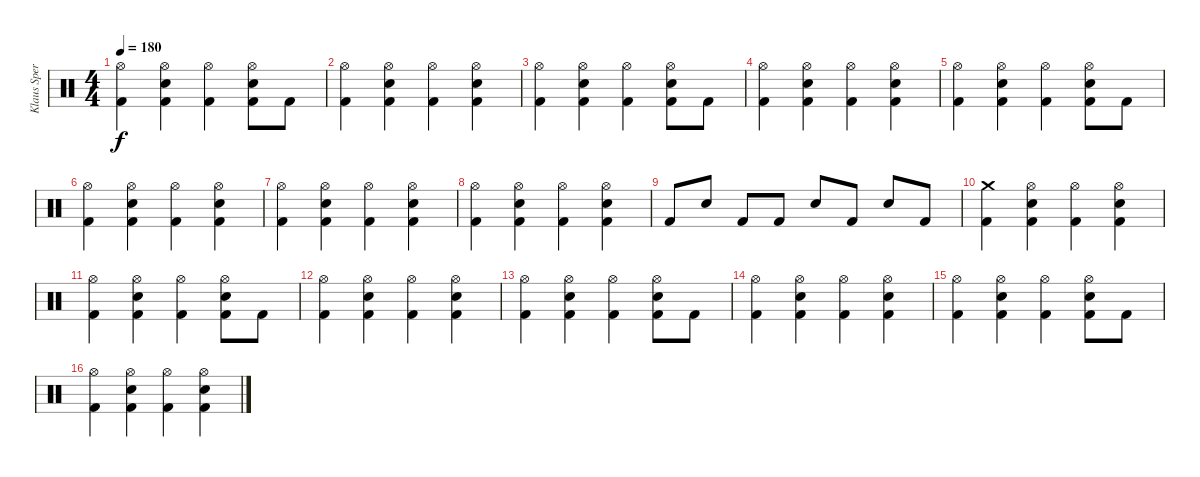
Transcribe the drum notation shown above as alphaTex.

\track ("Klaus Sperling Drums" "Klaus Sper") {instrument percussion}
\staff {score}
\articulation defaults
\ts (4 4)
\tempo 180
\clef neutral
\ks c
("Hi-Hat (open)" "Kick (hit) 2").4{dy f} ("Hi-Hat (open)" "Electric Snare (hit)" "Kick (hit) 2").4 ("Hi-Hat (open)" "Kick (hit) 2").4 ("Hi-Hat (open)" "Electric Snare (hit)" "Kick (hit) 2").8 "Kick (hit) 2".8 |
("Hi-Hat (open)" "Kick (hit) 2").4 ("Hi-Hat (open)" "Electric Snare (hit)" "Kick (hit) 2").4 ("Hi-Hat (open)" "Kick (hit) 2").4 ("Hi-Hat (open)" "Electric Snare (hit)" "Kick (hit) 2").4 |
("Hi-Hat (open)" "Kick (hit) 2").4 ("Hi-Hat (open)" "Electric Snare (hit)" "Kick (hit) 2").4 ("Hi-Hat (open)" "Kick (hit) 2").4 ("Hi-Hat (open)" "Electric Snare (hit)" "Kick (hit) 2").8 "Kick (hit) 2".8 |
("Hi-Hat (open)" "Kick (hit) 2").4 ("Hi-Hat (open)" "Electric Snare (hit)" "Kick (hit) 2").4 ("Hi-Hat (open)" "Kick (hit) 2").4 ("Hi-Hat (open)" "Electric Snare (hit)" "Kick (hit) 2").4 |
("Hi-Hat (open)" "Kick (hit) 2").4 ("Hi-Hat (open)" "Electric Snare (hit)" "Kick (hit) 2").4 ("Hi-Hat (open)" "Kick (hit) 2").4 ("Hi-Hat (open)" "Electric Snare (hit)" "Kick (hit) 2").8 "Kick (hit) 2".8 |
("Hi-Hat (open)" "Kick (hit) 2").4 ("Hi-Hat (open)" "Electric Snare (hit)" "Kick (hit) 2").4 ("Hi-Hat (open)" "Kick (hit) 2").4 ("Hi-Hat (open)" "Electric Snare (hit)" "Kick (hit) 2").4 |
("Hi-Hat (open)" "Kick (hit) 2").4 ("Hi-Hat (open)" "Electric Snare (hit)" "Kick (hit) 2").4 ("Hi-Hat (open)" "Kick (hit) 2").4 ("Hi-Hat (open)" "Electric Snare (hit)" "Kick (hit) 2").4 |
("Hi-Hat (open)" "Kick (hit) 2").4 ("Hi-Hat (open)" "Electric Snare (hit)" "Kick (hit) 2").4 ("Hi-Hat (open)" "Kick (hit) 2").4 ("Hi-Hat (open)" "Electric Snare (hit)" "Kick (hit) 2").4 |
"Kick (hit) 2".8 "Electric Snare (hit)".8 "Kick (hit) 2".8 "Kick (hit) 2".8 "Electric Snare (hit)".8 "Kick (hit) 2".8 "Electric Snare (hit)".8 "Kick (hit) 2".8 |
("Crash medium (hit)" "Kick (hit) 2").4 ("Hi-Hat (open)" "Electric Snare (hit)" "Kick (hit) 2").4 ("Hi-Hat (open)" "Kick (hit) 2").4 ("Hi-Hat (open)" "Electric Snare (hit)" "Kick (hit) 2").4 |
("Hi-Hat (open)" "Kick (hit) 2").4 ("Hi-Hat (open)" "Electric Snare (hit)" "Kick (hit) 2").4 ("Hi-Hat (open)" "Kick (hit) 2").4 ("Hi-Hat (open)" "Electric Snare (hit)" "Kick (hit) 2").8 "Kick (hit) 2".8 |
("Hi-Hat (open)" "Kick (hit) 2").4 ("Hi-Hat (open)" "Electric Snare (hit)" "Kick (hit) 2").4 ("Hi-Hat (open)" "Kick (hit) 2").4 ("Hi-Hat (open)" "Electric Snare (hit)" "Kick (hit) 2").4 |
("Hi-Hat (open)" "Kick (hit) 2").4 ("Hi-Hat (open)" "Electric Snare (hit)" "Kick (hit) 2").4 ("Hi-Hat (open)" "Kick (hit) 2").4 ("Hi-Hat (open)" "Electric Snare (hit)" "Kick (hit) 2").8 "Kick (hit) 2".8 |
("Hi-Hat (open)" "Kick (hit) 2").4 ("Hi-Hat (open)" "Electric Snare (hit)" "Kick (hit) 2").4 ("Hi-Hat (open)" "Kick (hit) 2").4 ("Hi-Hat (open)" "Electric Snare (hit)" "Kick (hit) 2").4 |
("Hi-Hat (open)" "Kick (hit) 2").4 ("Hi-Hat (open)" "Electric Snare (hit)" "Kick (hit) 2").4 ("Hi-Hat (open)" "Kick (hit) 2").4 ("Hi-Hat (open)" "Electric Snare (hit)" "Kick (hit) 2").8 "Kick (hit) 2".8 |
("Hi-Hat (open)" "Kick (hit) 2").4 ("Hi-Hat (open)" "Electric Snare (hit)" "Kick (hit) 2").4 ("Hi-Hat (open)" "Kick (hit) 2").4 ("Hi-Hat (open)" "Electric Snare (hit)" "Kick (hit) 2").4
